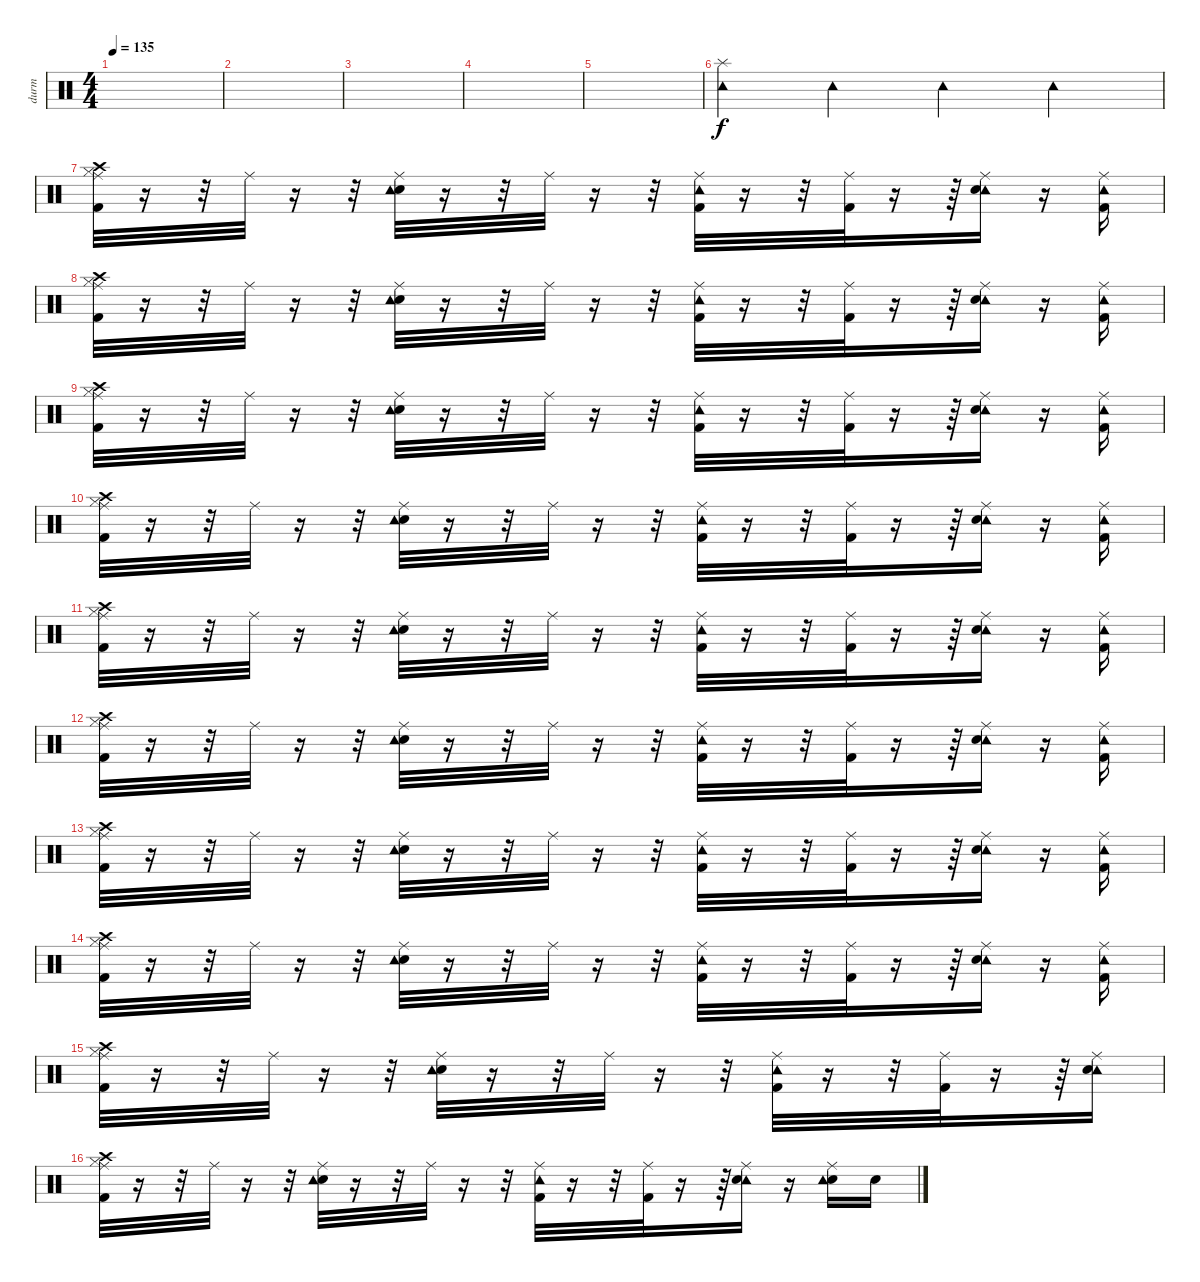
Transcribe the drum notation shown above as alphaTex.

\track ("durm" "durm") {instrument percussion}
\staff {score}
\articulation defaults
\ts (4 4)
\tempo 135
\clef neutral
\ks c
|
|
|
|
|
("Tambourine (hit)" "Splash (hit)").4 "Tambourine (hit)".4 "Tambourine (hit)".4 "Tambourine (hit)".4 |
("Crash high (hit)" "Hi-Hat (closed)" "Kick (hit) 2" "Ride (middle)").32 r.16 r.32 "Ride (middle)".32 r.16 r.32 ("Electric Snare (hit)" "Ride (middle)" "Tambourine (hit)").32 r.16 r.32 "Ride (middle)".32 r.16 r.32 ("Kick (hit) 2" "Ride (middle)" "Tambourine (hit)").32 r.16 r.32 ("Kick (hit) 2" "Ride (middle)").32 r.16 r.64 ("Ride (middle)" "Tambourine (hit)" "Electric Snare (hit)").16 r.16 ("Ride (middle)" "Kick (hit) 2" "Tambourine (hit)").16 |
("Crash high (hit)" "Hi-Hat (closed)" "Kick (hit) 2" "Ride (middle)").32 r.16 r.32 "Ride (middle)".32 r.16 r.32 ("Electric Snare (hit)" "Ride (middle)" "Tambourine (hit)").32 r.16 r.32 "Ride (middle)".32 r.16 r.32 ("Kick (hit) 2" "Ride (middle)" "Tambourine (hit)").32 r.16 r.32 ("Kick (hit) 2" "Ride (middle)").32 r.16 r.64 ("Ride (middle)" "Tambourine (hit)" "Electric Snare (hit)").16 r.16 ("Ride (middle)" "Kick (hit) 2" "Tambourine (hit)").16 |
("Crash high (hit)" "Hi-Hat (closed)" "Kick (hit) 2" "Ride (middle)").32 r.16 r.32 "Ride (middle)".32 r.16 r.32 ("Electric Snare (hit)" "Ride (middle)" "Tambourine (hit)").32 r.16 r.32 "Ride (middle)".32 r.16 r.32 ("Kick (hit) 2" "Ride (middle)" "Tambourine (hit)").32 r.16 r.32 ("Kick (hit) 2" "Ride (middle)").32 r.16 r.64 ("Ride (middle)" "Tambourine (hit)" "Electric Snare (hit)").16 r.16 ("Ride (middle)" "Kick (hit) 2" "Tambourine (hit)").16 |
("Crash high (hit)" "Hi-Hat (closed)" "Kick (hit) 2" "Ride (middle)").32 r.16 r.32 "Ride (middle)".32 r.16 r.32 ("Electric Snare (hit)" "Ride (middle)" "Tambourine (hit)").32 r.16 r.32 "Ride (middle)".32 r.16 r.32 ("Kick (hit) 2" "Ride (middle)" "Tambourine (hit)").32 r.16 r.32 ("Kick (hit) 2" "Ride (middle)").32 r.16 r.64 ("Ride (middle)" "Tambourine (hit)" "Electric Snare (hit)").16 r.16 ("Ride (middle)" "Kick (hit) 2" "Tambourine (hit)").16 |
("Crash high (hit)" "Hi-Hat (closed)" "Kick (hit) 2" "Ride (middle)").32 r.16 r.32 "Ride (middle)".32 r.16 r.32 ("Electric Snare (hit)" "Ride (middle)" "Tambourine (hit)").32 r.16 r.32 "Ride (middle)".32 r.16 r.32 ("Kick (hit) 2" "Ride (middle)" "Tambourine (hit)").32 r.16 r.32 ("Kick (hit) 2" "Ride (middle)").32 r.16 r.64 ("Ride (middle)" "Tambourine (hit)" "Electric Snare (hit)").16 r.16 ("Ride (middle)" "Kick (hit) 2" "Tambourine (hit)").16 |
("Crash high (hit)" "Hi-Hat (closed)" "Kick (hit) 2" "Ride (middle)").32 r.16 r.32 "Ride (middle)".32 r.16 r.32 ("Electric Snare (hit)" "Ride (middle)" "Tambourine (hit)").32 r.16 r.32 "Ride (middle)".32 r.16 r.32 ("Kick (hit) 2" "Ride (middle)" "Tambourine (hit)").32 r.16 r.32 ("Kick (hit) 2" "Ride (middle)").32 r.16 r.64 ("Ride (middle)" "Tambourine (hit)" "Electric Snare (hit)").16 r.16 ("Ride (middle)" "Kick (hit) 2" "Tambourine (hit)").16 |
("Crash high (hit)" "Hi-Hat (closed)" "Kick (hit) 2" "Ride (middle)").32 r.16 r.32 "Ride (middle)".32 r.16 r.32 ("Electric Snare (hit)" "Ride (middle)" "Tambourine (hit)").32 r.16 r.32 "Ride (middle)".32 r.16 r.32 ("Kick (hit) 2" "Ride (middle)" "Tambourine (hit)").32 r.16 r.32 ("Kick (hit) 2" "Ride (middle)").32 r.16 r.64 ("Ride (middle)" "Tambourine (hit)" "Electric Snare (hit)").16 r.16 ("Ride (middle)" "Kick (hit) 2" "Tambourine (hit)").16 |
("Crash high (hit)" "Hi-Hat (closed)" "Kick (hit) 2" "Ride (middle)").32 r.16 r.32 "Ride (middle)".32 r.16 r.32 ("Electric Snare (hit)" "Ride (middle)" "Tambourine (hit)").32 r.16 r.32 "Ride (middle)".32 r.16 r.32 ("Kick (hit) 2" "Ride (middle)" "Tambourine (hit)").32 r.16 r.32 ("Kick (hit) 2" "Ride (middle)").32 r.16 r.64 ("Ride (middle)" "Tambourine (hit)" "Electric Snare (hit)").16 r.16 ("Ride (middle)" "Kick (hit) 2" "Tambourine (hit)").16 |
("Crash high (hit)" "Hi-Hat (closed)" "Kick (hit) 2" "Ride (middle)").32 r.16 r.32 "Ride (middle)".32 r.16 r.32 ("Electric Snare (hit)" "Ride (middle)" "Tambourine (hit)").32 r.16 r.32 "Ride (middle)".32 r.16 r.32 ("Kick (hit) 2" "Ride (middle)" "Tambourine (hit)").32 r.16 r.32 ("Kick (hit) 2" "Ride (middle)").32 r.16 r.64 ("Ride (middle)" "Tambourine (hit)" "Electric Snare (hit)").16 |
("Crash high (hit)" "Hi-Hat (closed)" "Kick (hit) 2" "Ride (middle)").32 r.16 r.32 "Ride (middle)".32 r.16 r.32 ("Electric Snare (hit)" "Ride (middle)" "Tambourine (hit)").32 r.16 r.32 "Ride (middle)".32 r.16 r.32 ("Kick (hit) 2" "Ride (middle)" "Tambourine (hit)").32 r.16 r.32 ("Kick (hit) 2" "Ride (middle)").32 r.16 r.64 ("Ride (middle)" "Tambourine (hit)" "Electric Snare (hit)").16 r.16 ("Ride (middle)" "Electric Snare (hit)" "Tambourine (hit)").16 "Electric Snare (hit)".16
